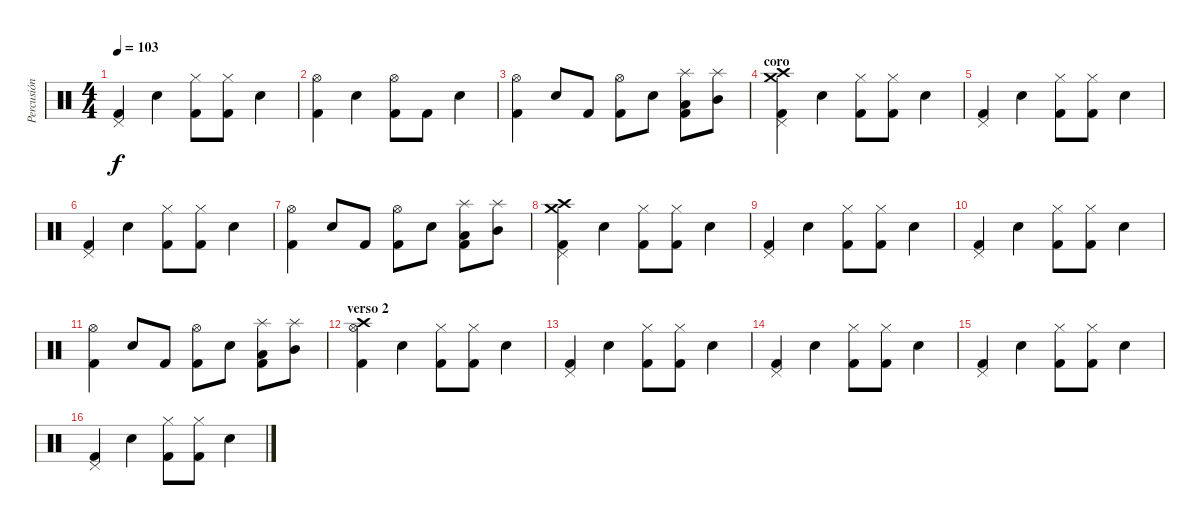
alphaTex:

\track ("Percusión" "Percusión") {instrument percussion}
\staff {score}
\articulation defaults
\ts (4 4)
\tempo 103
\clef neutral
\ks c
("Pedal Hi-Hat (hit)" "Kick (hit) 2").4{dy f} "Electric Snare (hit)".4 ("Hi-Hat (closed)" "Kick (hit) 2").8 ("Hi-Hat (closed)" "Kick (hit) 2").8 "Electric Snare (hit)".4 |
("Hi-Hat (open)" "Kick (hit) 2").4 "Electric Snare (hit)".4 ("Hi-Hat (open)" "Kick (hit) 2").8 "Kick (hit) 2".8 "Electric Snare (hit)".4 |
("Hi-Hat (open)" "Kick (hit) 2").4 "Electric Snare (hit)".8 "Kick (hit) 2".8 ("Hi-Hat (open)" "Kick (hit) 2").8 "Electric Snare (hit)".8 ("Splash (hit)" "Low Tom (hit)" "Kick (hit) 2").8 ("Splash (hit)" "Mid Tom (hit)").8 |
\section ("" "coro")
("Crash medium (hit)" "Crash high (hit)" "Pedal Hi-Hat (hit)" "Kick (hit) 2").4 "Electric Snare (hit)".4 ("Hi-Hat (closed)" "Kick (hit) 2").8 ("Hi-Hat (closed)" "Kick (hit) 2").8 "Electric Snare (hit)".4 |
("Pedal Hi-Hat (hit)" "Kick (hit) 2").4 "Electric Snare (hit)".4 ("Hi-Hat (closed)" "Kick (hit) 2").8 ("Hi-Hat (closed)" "Kick (hit) 2").8 "Electric Snare (hit)".4 |
("Pedal Hi-Hat (hit)" "Kick (hit) 2").4 "Electric Snare (hit)".4 ("Hi-Hat (closed)" "Kick (hit) 2").8 ("Hi-Hat (closed)" "Kick (hit) 2").8 "Electric Snare (hit)".4 |
("Hi-Hat (open)" "Kick (hit) 2").4 "Electric Snare (hit)".8 "Kick (hit) 2".8 ("Hi-Hat (open)" "Kick (hit) 2").8 "Electric Snare (hit)".8 ("Splash (hit)" "Low Tom (hit)" "Kick (hit) 2").8 ("Splash (hit)" "Mid Tom (hit)").8 |
("Crash medium (hit)" "Crash high (hit)" "Pedal Hi-Hat (hit)" "Kick (hit) 2").4 "Electric Snare (hit)".4 ("Hi-Hat (closed)" "Kick (hit) 2").8 ("Hi-Hat (closed)" "Kick (hit) 2").8 "Electric Snare (hit)".4 |
("Pedal Hi-Hat (hit)" "Kick (hit) 2").4 "Electric Snare (hit)".4 ("Hi-Hat (closed)" "Kick (hit) 2").8 ("Hi-Hat (closed)" "Kick (hit) 2").8 "Electric Snare (hit)".4 |
("Pedal Hi-Hat (hit)" "Kick (hit) 2").4 "Electric Snare (hit)".4 ("Hi-Hat (closed)" "Kick (hit) 2").8 ("Hi-Hat (closed)" "Kick (hit) 2").8 "Electric Snare (hit)".4 |
("Hi-Hat (open)" "Kick (hit) 2").4 "Electric Snare (hit)".8 "Kick (hit) 2".8 ("Hi-Hat (open)" "Kick (hit) 2").8 "Electric Snare (hit)".8 ("Splash (hit)" "Low Tom (hit)" "Kick (hit) 2").8 ("Splash (hit)" "Mid Tom (hit)").8 |
\section ("" "verso 2")
("Crash high (hit)" "Hi-Hat (open)" "Kick (hit) 2").4 "Electric Snare (hit)".4 ("Hi-Hat (closed)" "Kick (hit) 2").8 ("Hi-Hat (closed)" "Kick (hit) 2").8 "Electric Snare (hit)".4 |
("Pedal Hi-Hat (hit)" "Kick (hit) 2").4 "Electric Snare (hit)".4 ("Hi-Hat (closed)" "Kick (hit) 2").8 ("Hi-Hat (closed)" "Kick (hit) 2").8 "Electric Snare (hit)".4 |
("Pedal Hi-Hat (hit)" "Kick (hit) 2").4 "Electric Snare (hit)".4 ("Hi-Hat (closed)" "Kick (hit) 2").8 ("Hi-Hat (closed)" "Kick (hit) 2").8 "Electric Snare (hit)".4 |
("Pedal Hi-Hat (hit)" "Kick (hit) 2").4 "Electric Snare (hit)".4 ("Hi-Hat (closed)" "Kick (hit) 2").8 ("Hi-Hat (closed)" "Kick (hit) 2").8 "Electric Snare (hit)".4 |
("Pedal Hi-Hat (hit)" "Kick (hit) 2").4 "Electric Snare (hit)".4 ("Hi-Hat (closed)" "Kick (hit) 2").8 ("Hi-Hat (closed)" "Kick (hit) 2").8 "Electric Snare (hit)".4
